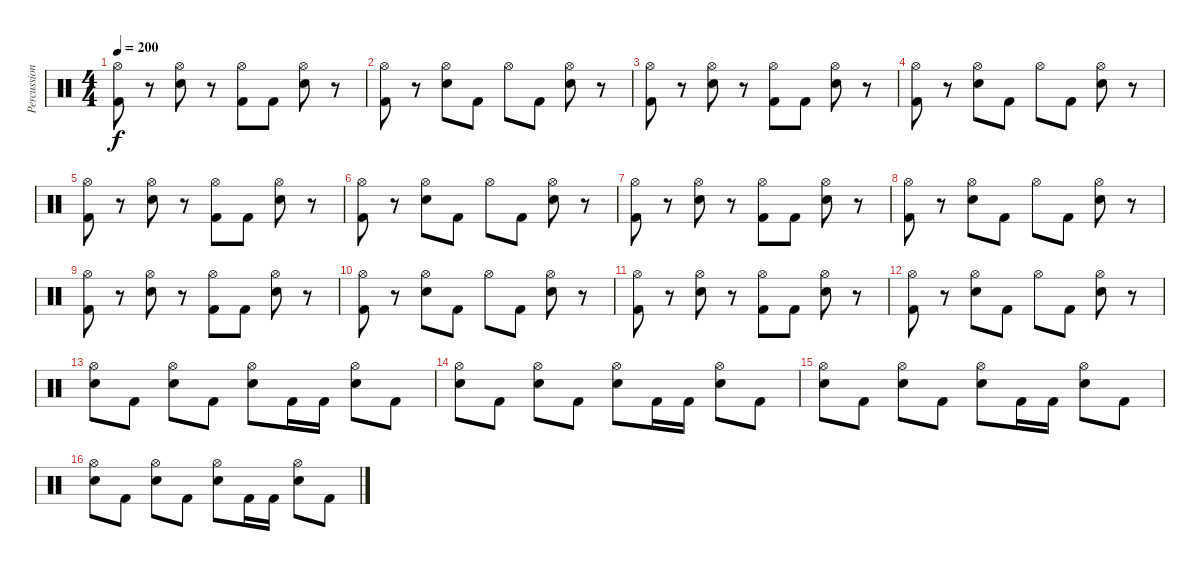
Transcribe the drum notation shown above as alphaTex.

\track ("Percussions" "Percussion") {instrument percussion}
\staff {score}
\articulation defaults
\ts (4 4)
\tempo 200
\clef neutral
\ks c
("Hi-Hat (open)" "Kick (hit) 2").8{dy f} r.8 ("Hi-Hat (open)" "Electric Snare (hit)").8 r.8 ("Hi-Hat (open)" "Kick (hit) 2").8 "Kick (hit) 2".8 ("Hi-Hat (open)" "Electric Snare (hit)").8 r.8 |
("Hi-Hat (open)" "Kick (hit) 2").8 r.8 ("Hi-Hat (open)" "Electric Snare (hit)").8 "Kick (hit) 2".8 "Hi-Hat (open)".8 "Kick (hit) 2".8 ("Hi-Hat (open)" "Electric Snare (hit)").8 r.8 |
("Hi-Hat (open)" "Kick (hit) 2").8 r.8 ("Hi-Hat (open)" "Electric Snare (hit)").8 r.8 ("Hi-Hat (open)" "Kick (hit) 2").8 "Kick (hit) 2".8 ("Hi-Hat (open)" "Electric Snare (hit)").8 r.8 |
("Hi-Hat (open)" "Kick (hit) 2").8 r.8 ("Hi-Hat (open)" "Electric Snare (hit)").8 "Kick (hit) 2".8 "Hi-Hat (open)".8 "Kick (hit) 2".8 ("Hi-Hat (open)" "Electric Snare (hit)").8 r.8 |
("Hi-Hat (open)" "Kick (hit) 2").8 r.8 ("Hi-Hat (open)" "Electric Snare (hit)").8 r.8 ("Hi-Hat (open)" "Kick (hit) 2").8 "Kick (hit) 2".8 ("Hi-Hat (open)" "Electric Snare (hit)").8 r.8 |
("Hi-Hat (open)" "Kick (hit) 2").8 r.8 ("Hi-Hat (open)" "Electric Snare (hit)").8 "Kick (hit) 2".8 "Hi-Hat (open)".8 "Kick (hit) 2".8 ("Hi-Hat (open)" "Electric Snare (hit)").8 r.8 |
("Hi-Hat (open)" "Kick (hit) 2").8 r.8 ("Hi-Hat (open)" "Electric Snare (hit)").8 r.8 ("Hi-Hat (open)" "Kick (hit) 2").8 "Kick (hit) 2".8 ("Hi-Hat (open)" "Electric Snare (hit)").8 r.8 |
("Hi-Hat (open)" "Kick (hit) 2").8 r.8 ("Hi-Hat (open)" "Electric Snare (hit)").8 "Kick (hit) 2".8 "Hi-Hat (open)".8 "Kick (hit) 2".8 ("Hi-Hat (open)" "Electric Snare (hit)").8 r.8 |
("Hi-Hat (open)" "Kick (hit) 2").8 r.8 ("Hi-Hat (open)" "Electric Snare (hit)").8 r.8 ("Hi-Hat (open)" "Kick (hit) 2").8 "Kick (hit) 2".8 ("Hi-Hat (open)" "Electric Snare (hit)").8 r.8 |
("Hi-Hat (open)" "Kick (hit) 2").8 r.8 ("Hi-Hat (open)" "Electric Snare (hit)").8 "Kick (hit) 2".8 "Hi-Hat (open)".8 "Kick (hit) 2".8 ("Hi-Hat (open)" "Electric Snare (hit)").8 r.8 |
("Hi-Hat (open)" "Kick (hit) 2").8 r.8 ("Hi-Hat (open)" "Electric Snare (hit)").8 r.8 ("Hi-Hat (open)" "Kick (hit) 2").8 "Kick (hit) 2".8 ("Hi-Hat (open)" "Electric Snare (hit)").8 r.8 |
("Hi-Hat (open)" "Kick (hit) 2").8 r.8 ("Hi-Hat (open)" "Electric Snare (hit)").8 "Kick (hit) 2".8 "Hi-Hat (open)".8 "Kick (hit) 2".8 ("Hi-Hat (open)" "Electric Snare (hit)").8 r.8 |
("Hi-Hat (open)" "Electric Snare (hit)").8 "Kick (hit) 2".8 ("Hi-Hat (open)" "Electric Snare (hit)").8 "Kick (hit) 2".8 ("Hi-Hat (open)" "Electric Snare (hit)").8 "Kick (hit) 2".16 "Kick (hit) 2".16 ("Hi-Hat (open)" "Electric Snare (hit)").8 "Kick (hit) 2".8 |
("Hi-Hat (open)" "Electric Snare (hit)").8 "Kick (hit) 2".8 ("Hi-Hat (open)" "Electric Snare (hit)").8 "Kick (hit) 2".8 ("Hi-Hat (open)" "Electric Snare (hit)").8 "Kick (hit) 2".16 "Kick (hit) 2".16 ("Hi-Hat (open)" "Electric Snare (hit)").8 "Kick (hit) 2".8 |
("Hi-Hat (open)" "Electric Snare (hit)").8 "Kick (hit) 2".8 ("Hi-Hat (open)" "Electric Snare (hit)").8 "Kick (hit) 2".8 ("Hi-Hat (open)" "Electric Snare (hit)").8 "Kick (hit) 2".16 "Kick (hit) 2".16 ("Hi-Hat (open)" "Electric Snare (hit)").8 "Kick (hit) 2".8 |
("Hi-Hat (open)" "Electric Snare (hit)").8 "Kick (hit) 2".8 ("Hi-Hat (open)" "Electric Snare (hit)").8 "Kick (hit) 2".8 ("Hi-Hat (open)" "Electric Snare (hit)").8 "Kick (hit) 2".16 "Kick (hit) 2".16 ("Hi-Hat (open)" "Electric Snare (hit)").8 "Kick (hit) 2".8
